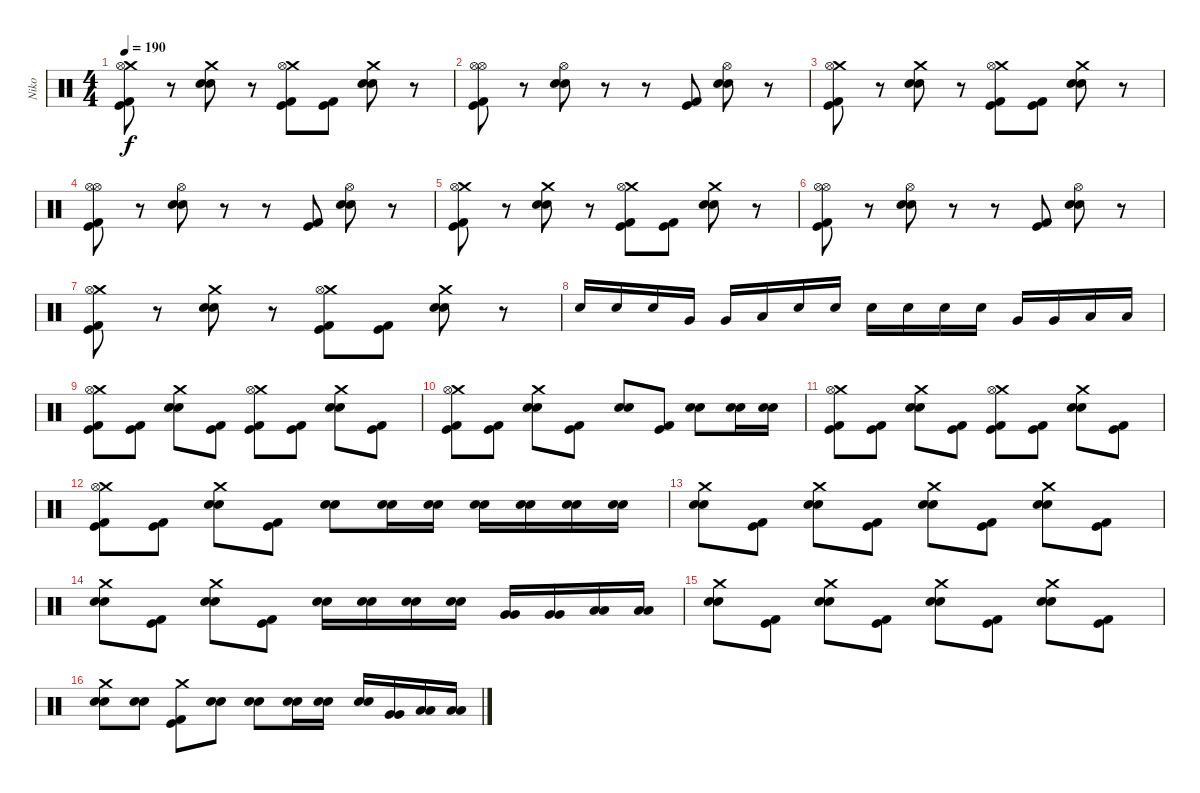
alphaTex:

\track ("Niko" "Niko") {instrument percussion}
\staff {score}
\articulation defaults
\ts (4 4)
\tempo 190
\clef neutral
\ks c
("Crash medium (hit)" "Hi-Hat (open)" "Kick (hit)" "Kick (hit) 2").8{dy f} r.8 ("Crash medium (hit)" "Electric Snare (hit)" "Electric Snare (hit)").8 r.8 ("Crash medium (hit)" "Hi-Hat (open)" "Kick (hit)" "Kick (hit) 2").8 ("Kick (hit) 2" "Kick (hit)").8 ("Crash medium (hit)" "Electric Snare (hit)" "Electric Snare (hit)").8 r.8 |
("Hi-Hat (open)" "Hi-Hat (open)" "Kick (hit)" "Kick (hit) 2").8 r.8 ("Hi-Hat (open)" "Electric Snare (hit)" "Electric Snare (hit)").8 r.8 r.8 ("Kick (hit) 2" "Kick (hit)").8 ("Hi-Hat (open)" "Electric Snare (hit)" "Electric Snare (hit)").8 r.8 |
("Crash medium (hit)" "Hi-Hat (open)" "Kick (hit)" "Kick (hit) 2").8 r.8 ("Crash medium (hit)" "Electric Snare (hit)" "Electric Snare (hit)").8 r.8 ("Crash medium (hit)" "Hi-Hat (open)" "Kick (hit)" "Kick (hit) 2").8 ("Kick (hit) 2" "Kick (hit)").8 ("Crash medium (hit)" "Electric Snare (hit)" "Electric Snare (hit)").8 r.8 |
("Hi-Hat (open)" "Hi-Hat (open)" "Kick (hit)" "Kick (hit) 2").8 r.8 ("Hi-Hat (open)" "Electric Snare (hit)" "Electric Snare (hit)").8 r.8 r.8 ("Kick (hit) 2" "Kick (hit)").8 ("Hi-Hat (open)" "Electric Snare (hit)" "Electric Snare (hit)").8 r.8 |
("Crash medium (hit)" "Hi-Hat (open)" "Kick (hit)" "Kick (hit) 2").8 r.8 ("Crash medium (hit)" "Electric Snare (hit)" "Electric Snare (hit)").8 r.8 ("Crash medium (hit)" "Hi-Hat (open)" "Kick (hit)" "Kick (hit) 2").8 ("Kick (hit) 2" "Kick (hit)").8 ("Crash medium (hit)" "Electric Snare (hit)" "Electric Snare (hit)").8 r.8 |
("Hi-Hat (open)" "Hi-Hat (open)" "Kick (hit)" "Kick (hit) 2").8 r.8 ("Hi-Hat (open)" "Electric Snare (hit)" "Electric Snare (hit)").8 r.8 r.8 ("Kick (hit) 2" "Kick (hit)").8 ("Hi-Hat (open)" "Electric Snare (hit)" "Electric Snare (hit)").8 r.8 |
("Crash medium (hit)" "Hi-Hat (open)" "Kick (hit)" "Kick (hit) 2").8 r.8 ("Crash medium (hit)" "Electric Snare (hit)" "Electric Snare (hit)").8 r.8 ("Crash medium (hit)" "Hi-Hat (open)" "Kick (hit)" "Kick (hit) 2").8 ("Kick (hit) 2" "Kick (hit)").8 ("Crash medium (hit)" "Electric Snare (hit)" "Electric Snare (hit)").8 r.8 |
"Electric Snare (hit)".16 "Electric Snare (hit)".16 "Electric Snare (hit)".16 "Very Low Tom (hit)".16 "Very Low Tom (hit)".16 "Low Floor Tom (hit)".16 "Electric Snare (hit)".16 "Electric Snare (hit)".16 "Electric Snare (hit)".16 "Electric Snare (hit)".16 "Electric Snare (hit)".16 "Electric Snare (hit)".16 "Very Low Tom (hit)".16 "Very Low Tom (hit)".16 "Low Floor Tom (hit)".16 "Low Floor Tom (hit)".16 |
("Crash medium (hit)" "Hi-Hat (open)" "Kick (hit)" "Kick (hit) 2").8 ("Kick (hit) 2" "Kick (hit)").8 ("Crash medium (hit)" "Electric Snare (hit)" "Electric Snare (hit)").8 ("Kick (hit) 2" "Kick (hit)").8 ("Crash medium (hit)" "Hi-Hat (open)" "Kick (hit)" "Kick (hit) 2").8 ("Kick (hit) 2" "Kick (hit)").8 ("Crash medium (hit)" "Electric Snare (hit)" "Electric Snare (hit)").8 ("Kick (hit) 2" "Kick (hit)").8 |
("Crash medium (hit)" "Hi-Hat (open)" "Kick (hit)" "Kick (hit) 2").8 ("Kick (hit) 2" "Kick (hit)").8 ("Crash medium (hit)" "Electric Snare (hit)" "Electric Snare (hit)").8 ("Kick (hit) 2" "Kick (hit)").8 ("Electric Snare (hit)" "Electric Snare (hit)").8 ("Kick (hit) 2" "Kick (hit)").8 ("Electric Snare (hit)" "Electric Snare (hit)").8 ("Electric Snare (hit)" "Electric Snare (hit)").16 ("Electric Snare (hit)" "Electric Snare (hit)").16 |
("Crash medium (hit)" "Hi-Hat (open)" "Kick (hit)" "Kick (hit) 2").8 ("Kick (hit) 2" "Kick (hit)").8 ("Crash medium (hit)" "Electric Snare (hit)" "Electric Snare (hit)").8 ("Kick (hit) 2" "Kick (hit)").8 ("Crash medium (hit)" "Hi-Hat (open)" "Kick (hit)" "Kick (hit) 2").8 ("Kick (hit) 2" "Kick (hit)").8 ("Crash medium (hit)" "Electric Snare (hit)" "Electric Snare (hit)").8 ("Kick (hit) 2" "Kick (hit)").8 |
("Crash medium (hit)" "Hi-Hat (open)" "Kick (hit)" "Kick (hit) 2").8 ("Kick (hit) 2" "Kick (hit)").8 ("Crash medium (hit)" "Electric Snare (hit)" "Electric Snare (hit)").8 ("Kick (hit) 2" "Kick (hit)").8 ("Electric Snare (hit)" "Electric Snare (hit)").8 ("Electric Snare (hit)" "Electric Snare (hit)").16 ("Electric Snare (hit)" "Electric Snare (hit)").16 ("Electric Snare (hit)" "Electric Snare (hit)").16 ("Electric Snare (hit)" "Electric Snare (hit)").16 ("Electric Snare (hit)" "Electric Snare (hit)").16 ("Electric Snare (hit)" "Electric Snare (hit)").16 |
("Crash medium (hit)" "Electric Snare (hit)" "Electric Snare (hit)").8 ("Kick (hit) 2" "Kick (hit)").8 ("Crash medium (hit)" "Electric Snare (hit)" "Electric Snare (hit)").8 ("Kick (hit) 2" "Kick (hit)").8 ("Crash medium (hit)" "Electric Snare (hit)" "Electric Snare (hit)").8 ("Kick (hit) 2" "Kick (hit)").8 ("Crash medium (hit)" "Electric Snare (hit)" "Electric Snare (hit)").8 ("Kick (hit) 2" "Kick (hit)").8 |
("Crash medium (hit)" "Electric Snare (hit)" "Electric Snare (hit)").8 ("Kick (hit) 2" "Kick (hit)").8 ("Crash medium (hit)" "Electric Snare (hit)" "Electric Snare (hit)").8 ("Kick (hit) 2" "Kick (hit)").8 ("Electric Snare (hit)" "Electric Snare (hit)").16 ("Electric Snare (hit)" "Electric Snare (hit)").16 ("Electric Snare (hit)" "Electric Snare (hit)").16 ("Electric Snare (hit)" "Electric Snare (hit)").16 ("Very Low Tom (hit)" "Very Low Tom (hit)").16 ("Very Low Tom (hit)" "Very Low Tom (hit)").16 ("Low Floor Tom (hit)" "Low Floor Tom (hit)").16 ("Low Floor Tom (hit)" "Low Floor Tom (hit)").16 |
("Crash medium (hit)" "Electric Snare (hit)" "Electric Snare (hit)").8 ("Kick (hit) 2" "Kick (hit)").8 ("Crash medium (hit)" "Electric Snare (hit)" "Electric Snare (hit)").8 ("Kick (hit) 2" "Kick (hit)").8 ("Crash medium (hit)" "Electric Snare (hit)" "Electric Snare (hit)").8 ("Kick (hit) 2" "Kick (hit)").8 ("Crash medium (hit)" "Electric Snare (hit)" "Electric Snare (hit)").8 ("Kick (hit) 2" "Kick (hit)").8 |
("Crash medium (hit)" "Electric Snare (hit)" "Electric Snare (hit)").8 ("Electric Snare (hit)" "Electric Snare (hit)").8 ("Crash medium (hit)" "Kick (hit) 2" "Kick (hit)").8 ("Electric Snare (hit)" "Electric Snare (hit)").8 ("Electric Snare (hit)" "Electric Snare (hit)").8 ("Electric Snare (hit)" "Electric Snare (hit)").16 ("Electric Snare (hit)" "Electric Snare (hit)").16 ("Electric Snare (hit)" "Electric Snare (hit)").16 ("Very Low Tom (hit)" "Very Low Tom (hit)").16 ("Low Floor Tom (hit)" "Low Floor Tom (hit)").16 ("Low Floor Tom (hit)" "Low Floor Tom (hit)").16
